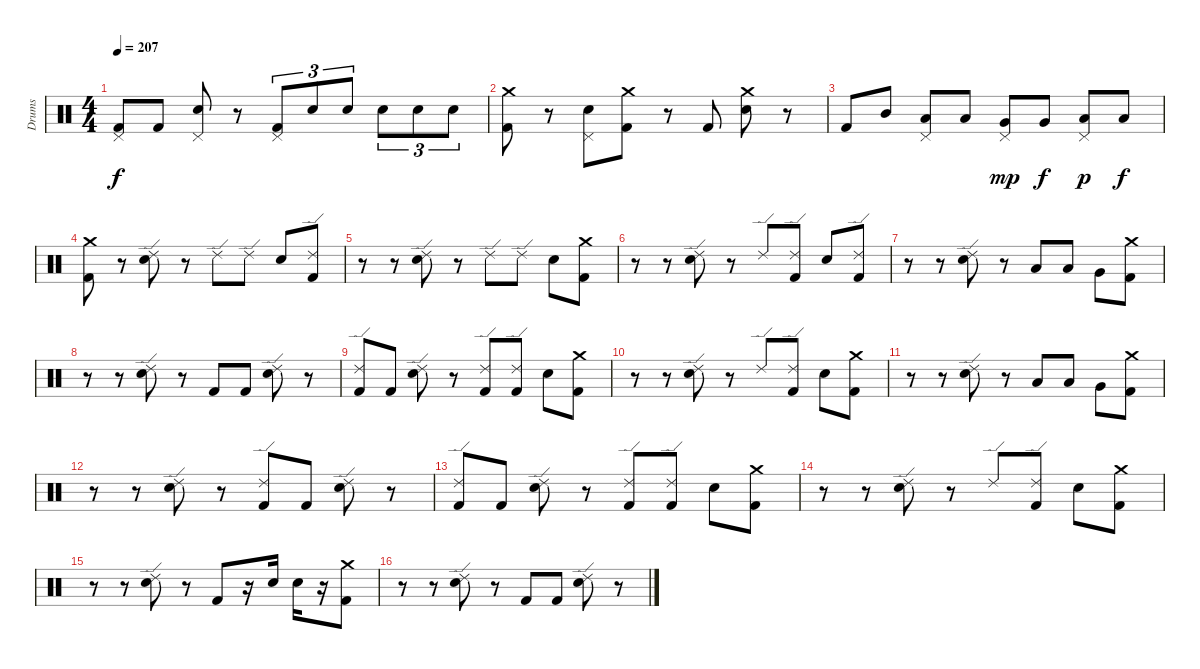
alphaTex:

\track ("Drums" "Drums") {instrument percussion}
\staff {score}
\articulation defaults
\ts (4 4)
\tempo 207
\clef neutral
\ks c
("Pedal Hi-Hat (hit)" "Kick (hit) 2").8{dy f} "Kick (hit) 2".8 ("Pedal Hi-Hat (hit)" "Snare (hit) 2").8 r.8 ("Pedal Hi-Hat (hit)" "Kick (hit) 2").8{tu (3 2)} "Snare (hit) 2".8{tu (3 2)} "Snare (hit) 2".8{tu (3 2)} "Snare (hit) 2".8{tu (3 2)} "Snare (hit) 2".8{tu (3 2)} "Snare (hit) 2".8{tu (3 2)} |
("Crash medium (hit)" "Kick (hit) 2").8 r.8 ("Pedal Hi-Hat (hit)" "Snare (hit) 2").8 ("Crash medium (hit)" "Kick (hit) 2").8 r.8 "Kick (hit) 2".8 ("Crash medium (hit)" "Snare (hit) 2").8 r.8 |
"Kick (hit) 2".8 "Mid Tom (hit)".8 ("Pedal Hi-Hat (hit)" "Low Tom (hit)").8 "Low Tom (hit)".8 ("Pedal Hi-Hat (hit)" "Very Low Tom (hit)").8{dy mp} "Very Low Tom (hit)".8{dy f} ("Pedal Hi-Hat (hit)" "Low Floor Tom (hit)").8{dy p} "Low Floor Tom (hit)".8{dy f} |
("Crash medium (hit)" "Kick (hit) 2").8 r.8 ("Ride (edge) 2" "Snare (hit) 2").8 r.8 "Ride (edge) 2".8 "Ride (edge) 2".8 "Snare (hit) 2".8 ("Ride (edge) 2" "Kick (hit) 2").8 |
r.8 r.8 ("Ride (edge) 2" "Snare (hit) 2").8 r.8 "Ride (edge) 2".8 "Ride (edge) 2".8 "Snare (hit) 2".8 ("Crash medium (hit)" "Kick (hit) 2").8 |
r.8 r.8 ("Ride (edge) 2" "Snare (hit) 2").8 r.8 "Ride (edge) 2".8 ("Ride (edge) 2" "Kick (hit) 2").8 "Snare (hit) 2".8 ("Ride (edge) 2" "Kick (hit) 2").8 |
r.8 r.8 ("Ride (edge) 2" "Snare (hit) 2").8 r.8 "Low Tom (hit)".8 "Low Tom (hit)".8 "Very Low Tom (hit)".8 ("Crash medium (hit)" "Kick (hit) 2").8 |
r.8 r.8 ("Ride (edge) 2" "Snare (hit) 2").8 r.8 "Kick (hit) 2".8 "Kick (hit) 2".8 ("Ride (edge) 2" "Snare (hit) 2").8 r.8 |
("Ride (edge) 2" "Kick (hit) 2").8 "Kick (hit) 2".8 ("Ride (edge) 2" "Snare (hit) 2").8 r.8 ("Ride (edge) 2" "Kick (hit) 2").8 ("Ride (edge) 2" "Kick (hit) 2").8 "Snare (hit) 2".8 ("Crash medium (hit)" "Kick (hit) 2").8 |
r.8 r.8 ("Ride (edge) 2" "Snare (hit) 2").8 r.8 "Ride (edge) 2".8 ("Ride (edge) 2" "Kick (hit) 2").8 "Snare (hit) 2".8 ("Crash medium (hit)" "Kick (hit) 2").8 |
r.8 r.8 ("Ride (edge) 2" "Snare (hit) 2").8 r.8 "Low Tom (hit)".8 "Low Tom (hit)".8 "Very Low Tom (hit)".8 ("Crash medium (hit)" "Kick (hit) 2").8 |
r.8 r.8 ("Ride (edge) 2" "Snare (hit) 2").8 r.8 ("Ride (edge) 2" "Kick (hit) 2").8 "Kick (hit) 2".8 ("Ride (edge) 2" "Snare (hit) 2").8 r.8 |
("Ride (edge) 2" "Kick (hit) 2").8 "Kick (hit) 2".8 ("Ride (edge) 2" "Snare (hit) 2").8 r.8 ("Ride (edge) 2" "Kick (hit) 2").8 ("Ride (edge) 2" "Kick (hit) 2").8 "Snare (hit) 2".8 ("Crash medium (hit)" "Kick (hit) 2").8 |
r.8 r.8 ("Ride (edge) 2" "Snare (hit) 2").8 r.8 "Ride (edge) 2".8 ("Ride (edge) 2" "Kick (hit) 2").8 "Snare (hit) 2".8 ("Crash medium (hit)" "Kick (hit) 2").8 |
r.8 r.8 ("Ride (edge) 2" "Snare (hit) 2").8 r.8 "Kick (hit) 2".8 r.16 "Snare (hit) 2".16 "Snare (hit) 2".16 r.16 ("Crash medium (hit)" "Kick (hit) 2").8 |
r.8 r.8 ("Ride (edge) 2" "Snare (hit) 2").8 r.8 "Kick (hit) 2".8 "Kick (hit) 2".8 ("Ride (edge) 2" "Snare (hit) 2").8 r.8
